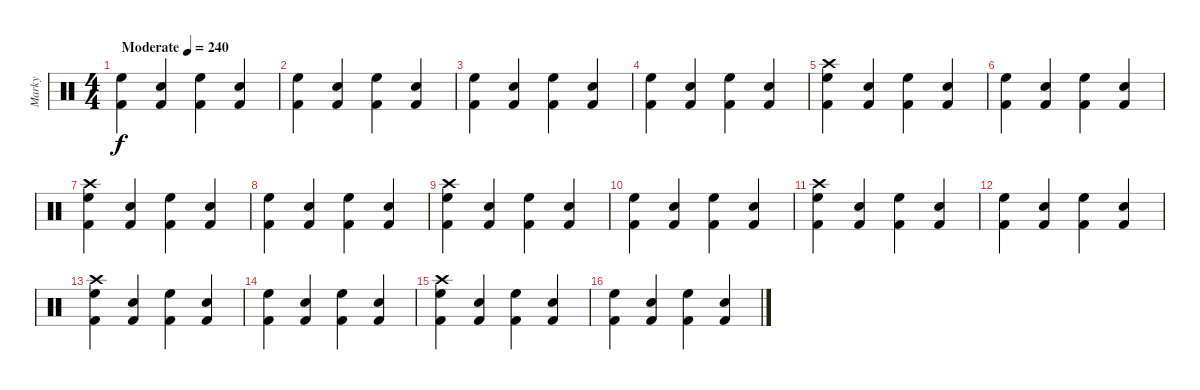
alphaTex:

\track ("Marky" "Marky") {instrument percussion}
\staff {score}
\articulation defaults
\ts (4 4)
\tempo (240 "Moderate")
\clef neutral
\ks c
("High Floor Tom (hit)" "Kick (hit) 2").4{dy f} ("Electric Snare (hit)" "Kick (hit) 2").4 ("High Floor Tom (hit)" "Kick (hit) 2").4 ("Electric Snare (hit)" "Kick (hit) 2").4 |
("High Floor Tom (hit)" "Kick (hit) 2").4 ("Electric Snare (hit)" "Kick (hit) 2").4 ("High Floor Tom (hit)" "Kick (hit) 2").4 ("Electric Snare (hit)" "Kick (hit) 2").4 |
("High Floor Tom (hit)" "Kick (hit) 2").4 ("Electric Snare (hit)" "Kick (hit) 2").4 ("High Floor Tom (hit)" "Kick (hit) 2").4 ("Electric Snare (hit)" "Kick (hit) 2").4 |
("High Floor Tom (hit)" "Kick (hit) 2").4 ("Electric Snare (hit)" "Kick (hit) 2").4 ("High Floor Tom (hit)" "Kick (hit) 2").4 ("Electric Snare (hit)" "Kick (hit) 2").4 |
("Crash high (hit)" "High Floor Tom (hit)" "Kick (hit) 2").4 ("Electric Snare (hit)" "Kick (hit) 2").4 ("High Floor Tom (hit)" "Kick (hit) 2").4 ("Electric Snare (hit)" "Kick (hit) 2").4 |
("High Floor Tom (hit)" "Kick (hit) 2").4 ("Electric Snare (hit)" "Kick (hit) 2").4 ("High Floor Tom (hit)" "Kick (hit) 2").4 ("Electric Snare (hit)" "Kick (hit) 2").4 |
("Crash high (hit)" "High Floor Tom (hit)" "Kick (hit) 2").4 ("Electric Snare (hit)" "Kick (hit) 2").4 ("High Floor Tom (hit)" "Kick (hit) 2").4 ("Electric Snare (hit)" "Kick (hit) 2").4 |
("High Floor Tom (hit)" "Kick (hit) 2").4 ("Electric Snare (hit)" "Kick (hit) 2").4 ("High Floor Tom (hit)" "Kick (hit) 2").4 ("Electric Snare (hit)" "Kick (hit) 2").4 |
("Crash high (hit)" "High Floor Tom (hit)" "Kick (hit) 2").4 ("Electric Snare (hit)" "Kick (hit) 2").4 ("High Floor Tom (hit)" "Kick (hit) 2").4 ("Electric Snare (hit)" "Kick (hit) 2").4 |
("High Floor Tom (hit)" "Kick (hit) 2").4 ("Electric Snare (hit)" "Kick (hit) 2").4 ("High Floor Tom (hit)" "Kick (hit) 2").4 ("Electric Snare (hit)" "Kick (hit) 2").4 |
("Crash high (hit)" "High Floor Tom (hit)" "Kick (hit) 2").4 ("Electric Snare (hit)" "Kick (hit) 2").4 ("High Floor Tom (hit)" "Kick (hit) 2").4 ("Electric Snare (hit)" "Kick (hit) 2").4 |
("High Floor Tom (hit)" "Kick (hit) 2").4 ("Electric Snare (hit)" "Kick (hit) 2").4 ("High Floor Tom (hit)" "Kick (hit) 2").4 ("Electric Snare (hit)" "Kick (hit) 2").4 |
("Crash high (hit)" "High Floor Tom (hit)" "Kick (hit) 2").4 ("Electric Snare (hit)" "Kick (hit) 2").4 ("High Floor Tom (hit)" "Kick (hit) 2").4 ("Electric Snare (hit)" "Kick (hit) 2").4 |
("High Floor Tom (hit)" "Kick (hit) 2").4 ("Electric Snare (hit)" "Kick (hit) 2").4 ("High Floor Tom (hit)" "Kick (hit) 2").4 ("Electric Snare (hit)" "Kick (hit) 2").4 |
("Crash high (hit)" "High Floor Tom (hit)" "Kick (hit) 2").4 ("Electric Snare (hit)" "Kick (hit) 2").4 ("High Floor Tom (hit)" "Kick (hit) 2").4 ("Electric Snare (hit)" "Kick (hit) 2").4 |
("High Floor Tom (hit)" "Kick (hit) 2").4 ("Electric Snare (hit)" "Kick (hit) 2").4 ("High Floor Tom (hit)" "Kick (hit) 2").4 ("Electric Snare (hit)" "Kick (hit) 2").4
